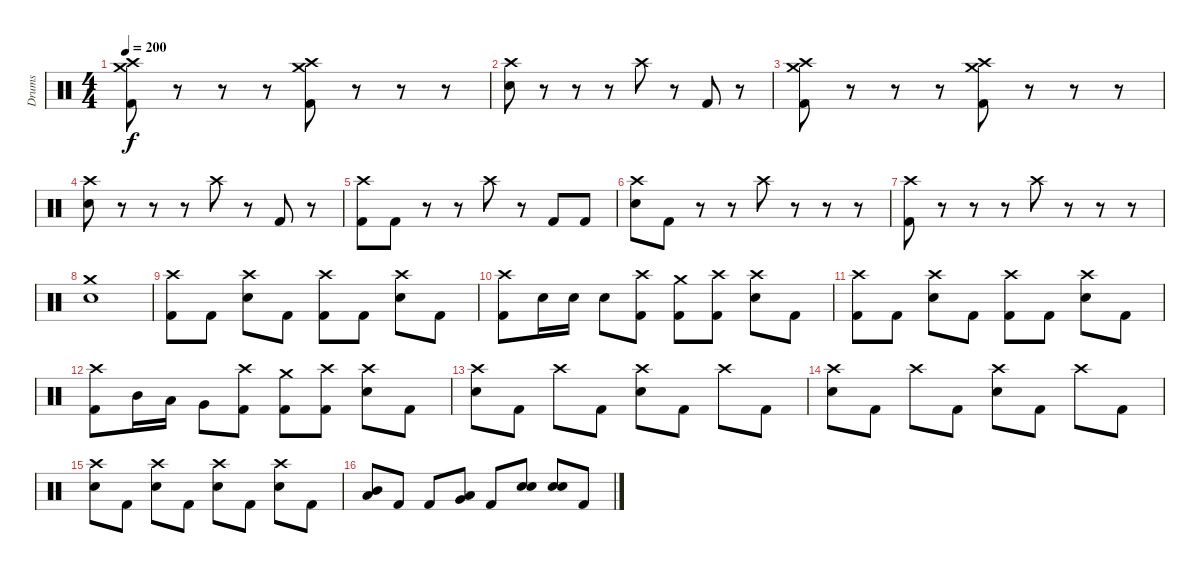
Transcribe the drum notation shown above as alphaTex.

\track ("Drums" "Drums") {instrument percussion}
\staff {score}
\articulation defaults
\ts (4 4)
\tempo 200
\clef neutral
\ks c
("Crash medium (hit)" "Crash high (hit)" "Kick (hit) 2").8{dy f} r.8 r.8 r.8 ("Crash medium (hit)" "Crash high (hit)" "Kick (hit) 2").8 r.8 r.8 r.8 |
("Crash high (hit)" "Electric Snare (hit)").8 r.8 r.8 r.8 "Crash high (hit)".8 r.8 "Kick (hit) 2".8 r.8 |
("Crash medium (hit)" "Crash high (hit)" "Kick (hit) 2").8 r.8 r.8 r.8 ("Crash medium (hit)" "Crash high (hit)" "Kick (hit) 2").8 r.8 r.8 r.8 |
("Crash high (hit)" "Electric Snare (hit)").8 r.8 r.8 r.8 "Crash high (hit)".8 r.8 "Kick (hit) 2".8 r.8 |
("Crash high (hit)" "Kick (hit) 2").8 "Kick (hit) 2".8 r.8 r.8 "Crash high (hit)".8 r.8 "Kick (hit) 2".8 "Kick (hit) 2".8 |
("Crash high (hit)" "Electric Snare (hit)").8 "Kick (hit) 2".8 r.8 r.8 "Crash high (hit)".8 r.8 r.8 r.8 |
("Crash high (hit)" "Kick (hit) 2").8 r.8 r.8 r.8 "Crash high (hit)".8 r.8 r.8 r.8 |
("Crash medium (hit)" "Electric Snare (hit)").1 |
("Crash high (hit)" "Kick (hit) 2").8 "Kick (hit) 2".8 ("Crash high (hit)" "Electric Snare (hit)").8 "Kick (hit) 2".8 ("Crash high (hit)" "Kick (hit) 2").8 "Kick (hit) 2".8 ("Crash high (hit)" "Electric Snare (hit)").8 "Kick (hit) 2".8 |
("Crash high (hit)" "Kick (hit) 2").8 "Electric Snare (hit)".16 "Electric Snare (hit)".16 "Electric Snare (hit)".8 ("Crash high (hit)" "Kick (hit) 2").8 ("Crash medium (hit)" "Kick (hit) 2").8 ("Crash high (hit)" "Kick (hit) 2").8 ("Crash high (hit)" "Electric Snare (hit)").8 "Kick (hit) 2".8 |
("Crash high (hit)" "Kick (hit) 2").8 "Kick (hit) 2".8 ("Crash high (hit)" "Electric Snare (hit)").8 "Kick (hit) 2".8 ("Crash high (hit)" "Kick (hit) 2").8 "Kick (hit) 2".8 ("Crash high (hit)" "Electric Snare (hit)").8 "Kick (hit) 2".8 |
("Crash high (hit)" "Kick (hit) 2").8 "Mid Tom (hit)".16 "Low Tom (hit)".16 "Very Low Tom (hit)".8 ("Crash high (hit)" "Kick (hit) 2").8 ("Crash medium (hit)" "Kick (hit) 2").8 ("Crash high (hit)" "Kick (hit) 2").8 ("Crash high (hit)" "Electric Snare (hit)").8 "Kick (hit) 2".8 |
("Crash high (hit)" "Electric Snare (hit)").8 "Kick (hit) 2".8 "Crash high (hit)".8 "Kick (hit) 2".8 ("Crash high (hit)" "Electric Snare (hit)").8 "Kick (hit) 2".8 "Crash high (hit)".8 "Kick (hit) 2".8 |
("Crash high (hit)" "Electric Snare (hit)").8 "Kick (hit) 2".8 "Crash high (hit)".8 "Kick (hit) 2".8 ("Crash high (hit)" "Electric Snare (hit)").8 "Kick (hit) 2".8 "Crash high (hit)".8 "Kick (hit) 2".8 |
("Crash high (hit)" "Electric Snare (hit)").8 "Kick (hit) 2".8 ("Crash high (hit)" "Electric Snare (hit)").8 "Kick (hit) 2".8 ("Crash high (hit)" "Electric Snare (hit)").8 "Kick (hit) 2".8 ("Crash high (hit)" "Electric Snare (hit)").8 "Kick (hit) 2".8 |
("Mid Tom (hit)" "Low Tom (hit)").8 "Kick (hit) 2".8 "Kick (hit) 2".8 ("Low Tom (hit)" "Very Low Tom (hit)").8 "Kick (hit) 2".8 ("Electric Snare (hit)" "Electric Snare (hit)").8 ("Electric Snare (hit)" "Electric Snare (hit)").8 "Kick (hit) 2".8
